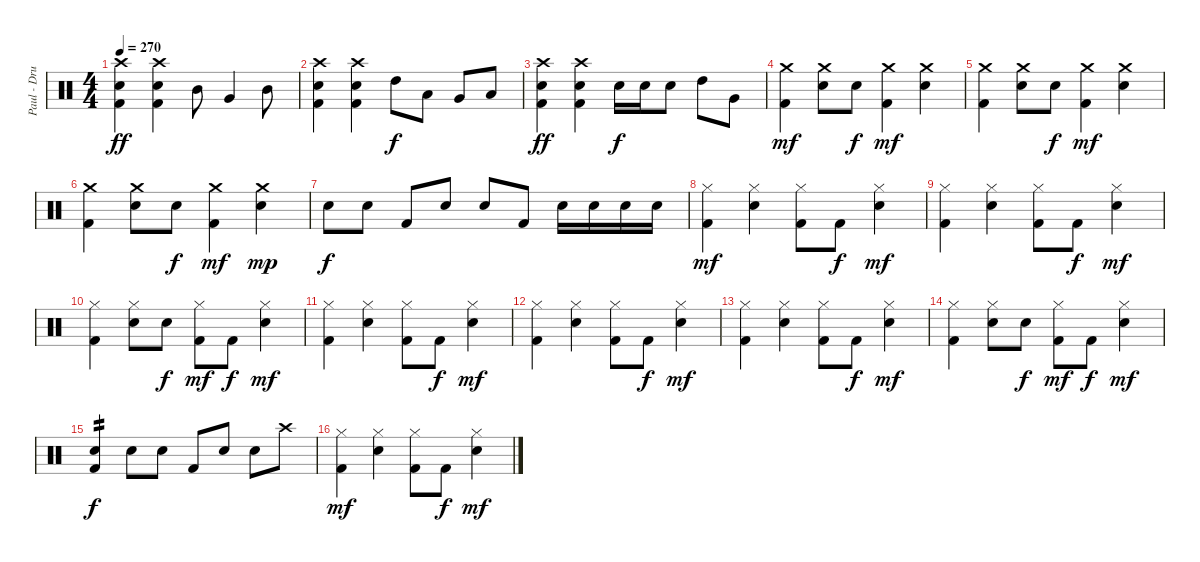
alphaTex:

\track ("Paul - Drums" "Paul - Dru") {instrument percussion}
\staff {score}
\articulation defaults
\ts (4 4)
\tempo 270
\clef neutral
\ks c
("Crash high (hit)" "Electric Snare (hit)" "Kick (hit) 2").4{dy ff} ("Crash high (hit)" "Electric Snare (hit)" "Kick (hit) 2").4 "Mid Tom (hit)".8 "Very Low Tom (hit)".4 "Mid Tom (hit)".8 |
("Crash high (hit)" "Electric Snare (hit)" "Kick (hit) 2").4 ("Crash high (hit)" "Electric Snare (hit)" "Kick (hit) 2").4 "High Tom (hit)".8{dy f} "Low Tom (hit)".8 "Very Low Tom (hit)".8 "Low Floor Tom (hit)".8 |
("Crash high (hit)" "Electric Snare (hit)" "Kick (hit) 2").4{dy ff} ("Crash high (hit)" "Electric Snare (hit)" "Kick (hit) 2").4 "Electric Snare (hit)".16{dy f} "Electric Snare (hit)".16 "Electric Snare (hit)".8 "High Tom (hit)".8 "Very Low Tom (hit)".8 |
("Crash medium (hit)" "Kick (hit) 2").4{dy mf} ("Crash medium (hit)" "Electric Snare (hit)").8 "Electric Snare (hit)".8{dy f} ("Crash medium (hit)" "Kick (hit) 2").4{dy mf} ("Crash medium (hit)" "Electric Snare (hit)").4 |
("Crash medium (hit)" "Kick (hit) 2").4 ("Crash medium (hit)" "Electric Snare (hit)").8 "Electric Snare (hit)".8{dy f} ("Crash medium (hit)" "Kick (hit) 2").4{dy mf} ("Crash medium (hit)" "Electric Snare (hit)").4 |
("Crash medium (hit)" "Kick (hit) 2").4 ("Crash medium (hit)" "Electric Snare (hit)").8 "Electric Snare (hit)".8{dy f} ("Crash medium (hit)" "Kick (hit) 2").4{dy mf} ("Crash medium (hit)" "Electric Snare (hit)").4{dy mp} |
"Electric Snare (hit)".8{dy f} "Electric Snare (hit)".8 "Kick (hit) 2".8 "Electric Snare (hit)".8 "Electric Snare (hit)".8 "Kick (hit) 2".8 "Electric Snare (hit)".16 "Electric Snare (hit)".16 "Electric Snare (hit)".16 "Electric Snare (hit)".16 |
("Hi-Hat (closed)" "Kick (hit) 2").4{dy mf} ("Hi-Hat (closed)" "Electric Snare (hit)").4 ("Hi-Hat (closed)" "Kick (hit) 2").8 "Kick (hit) 2".8{dy f} ("Hi-Hat (closed)" "Electric Snare (hit)").4{dy mf} |
("Hi-Hat (closed)" "Kick (hit) 2").4 ("Hi-Hat (closed)" "Electric Snare (hit)").4 ("Hi-Hat (closed)" "Kick (hit) 2").8 "Kick (hit) 2".8{dy f} ("Hi-Hat (closed)" "Electric Snare (hit)").4{dy mf} |
("Hi-Hat (closed)" "Kick (hit) 2").4 ("Hi-Hat (closed)" "Electric Snare (hit)").8 "Electric Snare (hit)".8{dy f} ("Hi-Hat (closed)" "Kick (hit) 2").8{dy mf} "Kick (hit) 2".8{dy f} ("Hi-Hat (closed)" "Electric Snare (hit)").4{dy mf} |
("Hi-Hat (closed)" "Kick (hit) 2").4 ("Hi-Hat (closed)" "Electric Snare (hit)").4 ("Hi-Hat (closed)" "Kick (hit) 2").8 "Kick (hit) 2".8{dy f} ("Hi-Hat (closed)" "Electric Snare (hit)").4{dy mf} |
("Hi-Hat (closed)" "Kick (hit) 2").4 ("Hi-Hat (closed)" "Electric Snare (hit)").4 ("Hi-Hat (closed)" "Kick (hit) 2").8 "Kick (hit) 2".8{dy f} ("Hi-Hat (closed)" "Electric Snare (hit)").4{dy mf} |
("Hi-Hat (closed)" "Kick (hit) 2").4 ("Hi-Hat (closed)" "Electric Snare (hit)").4 ("Hi-Hat (closed)" "Kick (hit) 2").8 "Kick (hit) 2".8{dy f} ("Hi-Hat (closed)" "Electric Snare (hit)").4{dy mf} |
("Hi-Hat (closed)" "Kick (hit) 2").4 ("Hi-Hat (closed)" "Electric Snare (hit)").8 "Electric Snare (hit)".8{dy f} ("Hi-Hat (closed)" "Kick (hit) 2").8{dy mf} "Kick (hit) 2".8{dy f} ("Hi-Hat (closed)" "Electric Snare (hit)").4{dy mf} |
("Electric Snare (hit)" "Kick (hit) 2").4{tp 2 dy f} "Electric Snare (hit)".8 "Electric Snare (hit)".8 "Kick (hit) 2".8 "Electric Snare (hit)".8 "Electric Snare (hit)".8 "Crash high (hit)".8 |
("Hi-Hat (closed)" "Kick (hit) 2").4{dy mf} ("Hi-Hat (closed)" "Electric Snare (hit)").4 ("Hi-Hat (closed)" "Kick (hit) 2").8 "Kick (hit) 2".8{dy f} ("Hi-Hat (closed)" "Electric Snare (hit)").4{dy mf}
